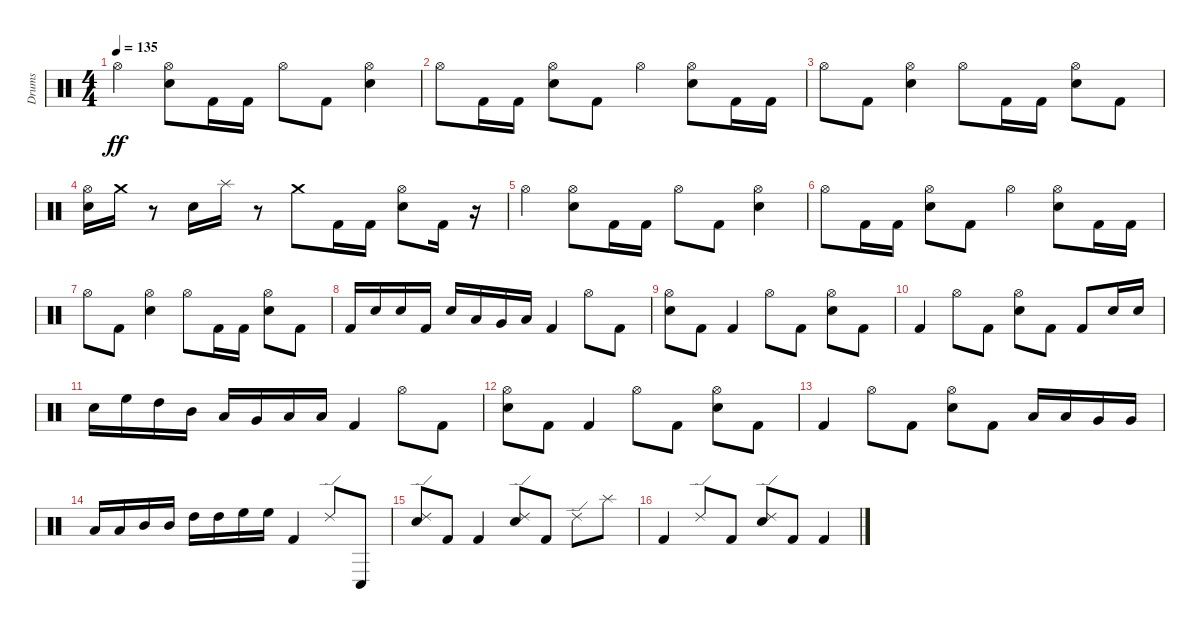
\track ("Drums" "Drums") {instrument percussion}
\staff {score}
\articulation defaults
\ts (4 4)
\tempo 135
\clef neutral
\ks c "Hi-Hat (open)".4{dy ff}
("Electric Snare (hit)" "Hi-Hat (open)").8 "Kick (hit) 2".16 "Kick (hit) 2".16 "Hi-Hat (open)".8 "Kick (hit) 2".8 ("Electric Snare (hit)" "Hi-Hat (open)").4 |
"Hi-Hat (open)".8 "Kick (hit) 2".16 "Kick (hit) 2".16 ("Electric Snare (hit)" "Hi-Hat (open)").8 "Kick (hit) 2".8 "Hi-Hat (open)".4 ("Electric Snare (hit)" "Hi-Hat (open)").8 "Kick (hit) 2".16 "Kick (hit) 2".16 |
"Hi-Hat (open)".8 "Kick (hit) 2".8 ("Electric Snare (hit)" "Hi-Hat (open)").4 "Hi-Hat (open)".8 "Kick (hit) 2".16 "Kick (hit) 2".16 ("Electric Snare (hit)" "Hi-Hat (open)").8 "Kick (hit) 2".8 |
("Electric Snare (hit)" "Hi-Hat (open)").16 "Crash medium (hit)".16 r.8 "Electric Snare (hit)".16 "Splash (hit)".16 r.8 "Crash medium (hit)".8 "Kick (hit) 2".16 "Kick (hit) 2".16 ("Electric Snare (hit)" "Hi-Hat (open)").8 "Kick (hit) 2".16 r.16 |
"Hi-Hat (open)".4 ("Electric Snare (hit)" "Hi-Hat (open)").8 "Kick (hit) 2".16 "Kick (hit) 2".16 "Hi-Hat (open)".8 "Kick (hit) 2".8 ("Electric Snare (hit)" "Hi-Hat (open)").4 |
"Hi-Hat (open)".8 "Kick (hit) 2".16 "Kick (hit) 2".16 ("Electric Snare (hit)" "Hi-Hat (open)").8 "Kick (hit) 2".8 "Hi-Hat (open)".4 ("Electric Snare (hit)" "Hi-Hat (open)").8 "Kick (hit) 2".16 "Kick (hit) 2".16 |
"Hi-Hat (open)".8 "Kick (hit) 2".8 ("Electric Snare (hit)" "Hi-Hat (open)").4 "Hi-Hat (open)".8 "Kick (hit) 2".16 "Kick (hit) 2".16 ("Electric Snare (hit)" "Hi-Hat (open)").8 "Kick (hit) 2".8 |
"Kick (hit) 2".16 "Electric Snare (hit)".16 "Electric Snare (hit)".16 "Kick (hit) 2".16 "Electric Snare (hit)".16 "Low Tom (hit)".16 "Very Low Tom (hit)".16 "Low Floor Tom (hit)".16 "Kick (hit) 2".4 "Hi-Hat (open)".8 "Kick (hit) 2".8 |
("Electric Snare (hit)" "Hi-Hat (open)").8 "Kick (hit) 2".8 "Kick (hit) 2".4 "Hi-Hat (open)".8 "Kick (hit) 2".8 ("Electric Snare (hit)" "Hi-Hat (open)").8 "Kick (hit) 2".8 |
"Kick (hit) 2".4 "Hi-Hat (open)".8 "Kick (hit) 2".8 ("Electric Snare (hit)" "Hi-Hat (open)").8 "Kick (hit) 2".8 "Kick (hit) 2".8 "Electric Snare (hit)".16 "Electric Snare (hit)".16 |
"Electric Snare (hit)".16 "High Floor Tom (hit)".16 "High Tom (hit)".16 "Mid Tom (hit)".16 "Low Tom (hit)".16 "Very Low Tom (hit)".16 "Low Floor Tom (hit)".16 "Low Floor Tom (hit)".16 "Kick (hit) 2".4 "Hi-Hat (open)".8 "Kick (hit) 2".8 |
("Electric Snare (hit)" "Hi-Hat (open)").8 "Kick (hit) 2".8 "Kick (hit) 2".4 "Hi-Hat (open)".8 "Kick (hit) 2".8 ("Electric Snare (hit)" "Hi-Hat (open)").8 "Kick (hit) 2".8 |
"Kick (hit) 2".4 "Hi-Hat (open)".8 "Kick (hit) 2".8 ("Electric Snare (hit)" "Hi-Hat (open)").8 "Kick (hit) 2".8 "Low Floor Tom (hit)".16 "Low Floor Tom (hit)".16 "Very Low Tom (hit)".16 "Very Low Tom (hit)".16 |
"Low Tom (hit)".16 "Low Tom (hit)".16 "Mid Tom (hit)".16 "Mid Tom (hit)".16 "High Tom (hit)".16 "High Tom (hit)".16 "High Floor Tom (hit)".16 "High Floor Tom (hit)".16 "Kick (hit) 2".4 "Ride (edge) 2".8 "Conga low (hit)".8 |
("Electric Snare (hit)" "Ride (edge) 2").8 "Kick (hit) 2".8 "Kick (hit) 2".4 ("Electric Snare (hit)" "Ride (edge) 2").8 "Kick (hit) 2".8 "Ride (edge) 2".8 "Splash (hit)".8 |
"Kick (hit) 2".4 "Ride (edge) 2".8 "Kick (hit) 2".8 ("Electric Snare (hit)" "Ride (edge) 2").8 "Kick (hit) 2".8 "Kick (hit) 2".4
